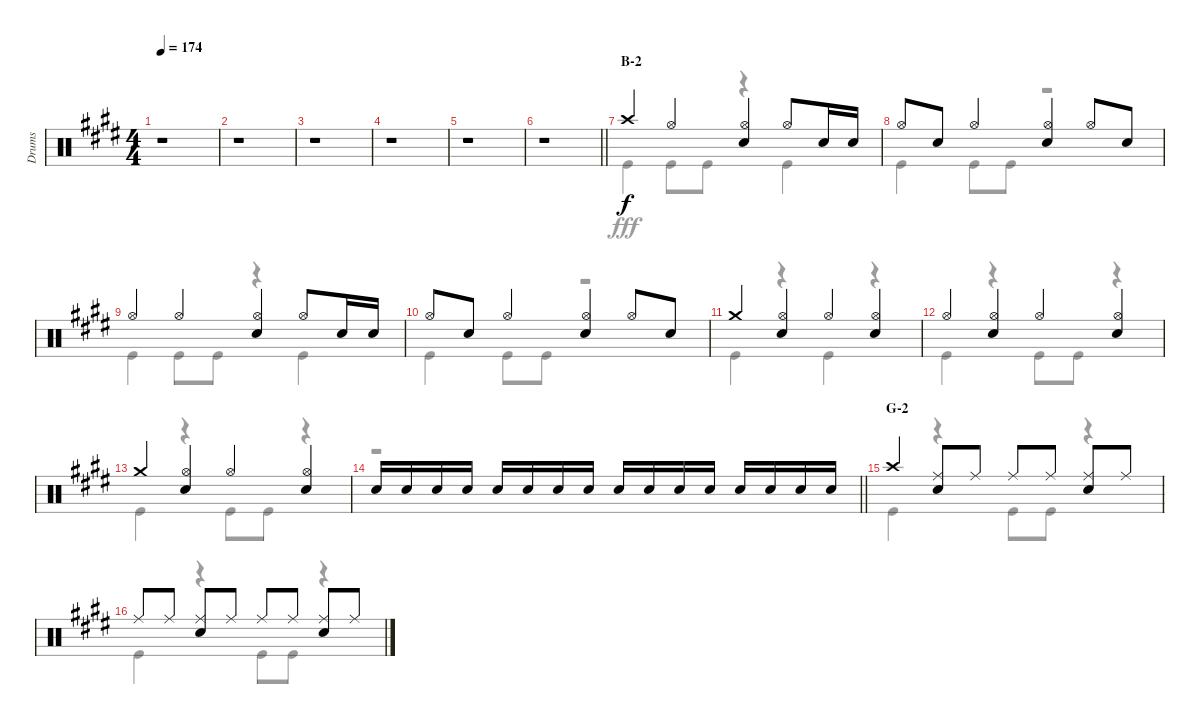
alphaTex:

\track ("Drums" "Drums") {instrument percussion}
\staff {score}
\articulation defaults
\voice
\ts (4 4)
\tempo 174
\clef neutral
\ks e
r.1{dy f} |
r.1 |
r.1 |
r.1 |
r.1 |
\barLineRight lightlight
r.1 |
\section ("" "B-2")
"Crash high (hit)".4 "Hi-Hat (open)".4 ("Hi-Hat (open)" "Snare (hit) 2").4 "Hi-Hat (open)".8 "Snare (hit) 2".16 "Snare (hit) 2".16 |
"Hi-Hat (open)".8 "Snare (hit) 2".8 "Hi-Hat (open)".4 ("Hi-Hat (open)" "Snare (hit) 2").4 "Hi-Hat (open)".8 "Snare (hit) 2".8 |
"Hi-Hat (open)".4 "Hi-Hat (open)".4 ("Hi-Hat (open)" "Snare (hit) 2").4 "Hi-Hat (open)".8 "Snare (hit) 2".16 "Snare (hit) 2".16 |
"Hi-Hat (open)".8 "Snare (hit) 2".8 "Hi-Hat (open)".4 ("Hi-Hat (open)" "Snare (hit) 2").4 "Hi-Hat (open)".8 "Snare (hit) 2".8 |
"Crash medium (hit)".4 ("Hi-Hat (open)" "Snare (hit) 2").4 "Hi-Hat (open)".4 ("Hi-Hat (open)" "Snare (hit) 2").4 |
"Hi-Hat (open)".4 ("Hi-Hat (open)" "Snare (hit) 2").4 "Hi-Hat (open)".4 ("Hi-Hat (open)" "Snare (hit) 2").4 |
"Crash medium (hit)".4 ("Hi-Hat (open)" "Snare (hit) 2").4 "Hi-Hat (open)".4 ("Hi-Hat (open)" "Snare (hit) 2").4 |
\barLineRight lightlight "Snare (hit) 2".16 "Snare (hit) 2".16 "Snare (hit) 2".16 "Snare (hit) 2".16 "Snare (hit) 2".16 "Snare (hit) 2".16 "Snare (hit) 2".16 "Snare (hit) 2".16 "Snare (hit) 2".16 "Snare (hit) 2".16 "Snare (hit) 2".16 "Snare (hit) 2".16 "Snare (hit) 2".16 "Snare (hit) 2".16 "Snare (hit) 2".16 "Snare (hit) 2".16
|
\section ("" "G-2")
"Crash high (hit)".4 ("Ride (middle)" "Snare (hit) 2").8 "Ride (middle)".8 "Ride (middle)".8 "Ride (middle)".8 ("Ride (middle)" "Snare (hit) 2").8 "Ride (middle)".8 |
"Ride (middle)".8 "Ride (middle)".8 ("Ride (middle)" "Snare (hit) 2").8 "Ride (middle)".8 "Ride (middle)".8 "Ride (middle)".8 ("Ride (middle)" "Snare (hit) 2").8 "Ride (middle)".8
\voice
\clef neutral
\ottava regular
\simile none
\ks e
r.1{dy fff} |
r.1 |
r.1 |
r.1 |
r.1 |
\barLineRight lightlight
r.1 |
"Kick (hit)".4 "Kick (hit)".8 "Kick (hit)".8 r.4 "Kick (hit)".4 |
"Kick (hit)".4 "Kick (hit)".8 "Kick (hit)".8 r.2 |
"Kick (hit)".4 "Kick (hit)".8 "Kick (hit)".8 r.4 "Kick (hit)".4 |
"Kick (hit)".4 "Kick (hit)".8 "Kick (hit)".8 r.2 |
"Kick (hit)".4 r.4 "Kick (hit)".4 r.4 |
"Kick (hit)".4 r.4 "Kick (hit)".8 "Kick (hit)".8 r.4 |
"Kick (hit)".4 r.4 "Kick (hit)".8 "Kick (hit)".8 r.4 |
\barLineRight lightlight
r.1 |
"Kick (hit)".4 r.4 "Kick (hit)".8 "Kick (hit)".8 r.4 |
"Kick (hit)".4 r.4 "Kick (hit)".8 "Kick (hit)".8 r.4
